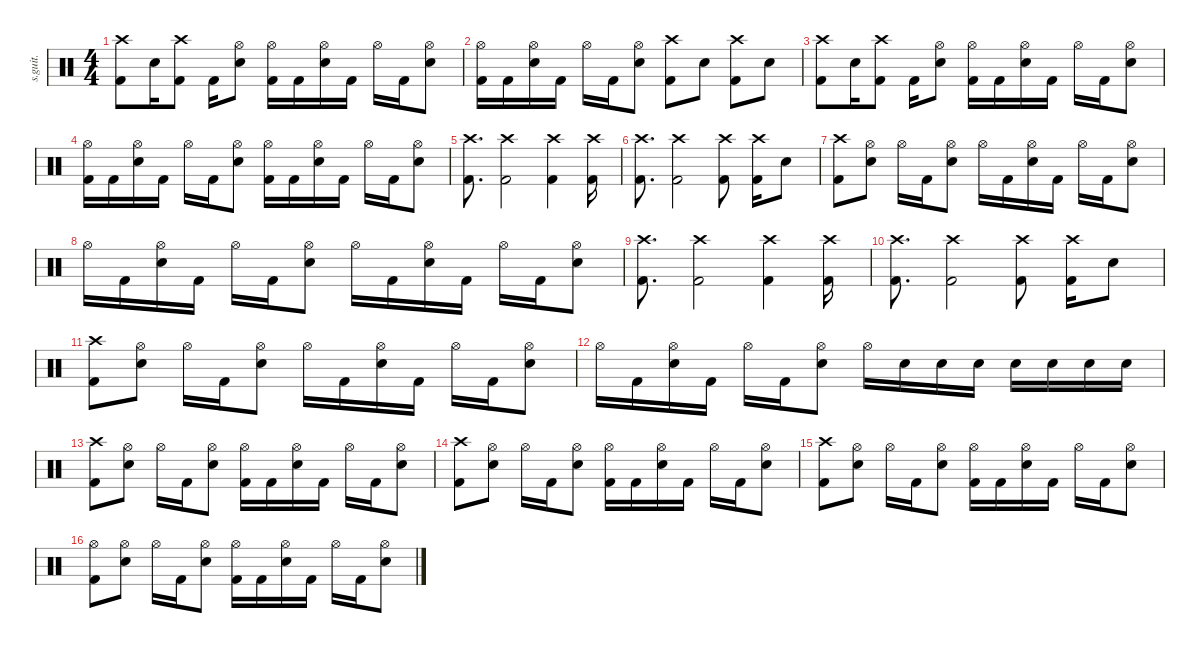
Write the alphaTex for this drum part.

\defaultSystemsLayout 4
\hideDynamics
\bracketExtendMode nobrackets
\track ("" "s.guit.") {instrument percussion}
\staff {score}
\articulation defaults
\ts (4 4)
\tempo (150 hide)
\clef neutral
\ks c
("Crash high (hit)" "Kick (hit) 2").8{dy f} "Snare (hit) 2".16 ("Crash high (hit)" "Kick (hit) 2").8 "Kick (hit) 2".16 ("Hi-Hat (open)" "Snare (hit) 2").8 ("Hi-Hat (open)" "Kick (hit) 2").16 "Kick (hit) 2".16 ("Hi-Hat (open)" "Snare (hit) 2").16 "Kick (hit) 2".16 "Hi-Hat (open)".16 "Kick (hit) 2".16 ("Hi-Hat (open)" "Snare (hit) 2").8 |
("Hi-Hat (open)" "Kick (hit) 2").16 "Kick (hit) 2".16 ("Hi-Hat (open)" "Snare (hit) 2").16 "Kick (hit) 2".16 "Hi-Hat (open)".16 "Kick (hit) 2".16 ("Hi-Hat (open)" "Snare (hit) 2").8 ("Crash high (hit)" "Kick (hit) 2").8 "Snare (hit) 2".8 ("Crash high (hit)" "Kick (hit) 2").8 "Snare (hit) 2".8 |
("Crash high (hit)" "Kick (hit) 2").8 "Snare (hit) 2".16 ("Crash high (hit)" "Kick (hit) 2").8 "Kick (hit) 2".16 ("Hi-Hat (open)" "Snare (hit) 2").8 ("Hi-Hat (open)" "Kick (hit) 2").16 "Kick (hit) 2".16 ("Hi-Hat (open)" "Snare (hit) 2").16 "Kick (hit) 2".16 "Hi-Hat (open)".16 "Kick (hit) 2".16 ("Hi-Hat (open)" "Snare (hit) 2").8 |
("Hi-Hat (open)" "Kick (hit) 2").16 "Kick (hit) 2".16 ("Hi-Hat (open)" "Snare (hit) 2").16 "Kick (hit) 2".16 "Hi-Hat (open)".16 "Kick (hit) 2".16 ("Hi-Hat (open)" "Snare (hit) 2").8 ("Hi-Hat (open)" "Kick (hit) 2").16 "Kick (hit) 2".16 ("Hi-Hat (open)" "Snare (hit) 2").16 "Kick (hit) 2".16 "Hi-Hat (open)".16 "Kick (hit) 2".16 ("Hi-Hat (open)" "Snare (hit) 2").8 |
("Crash high (hit)" "Kick (hit) 2").8{d} ("Crash high (hit)" "Kick (hit) 2").2 ("Crash high (hit)" "Kick (hit) 2").4 ("Crash high (hit)" "Kick (hit) 2").16 |
("Crash high (hit)" "Kick (hit) 2").8{d} ("Crash high (hit)" "Kick (hit) 2").2 ("Crash high (hit)" "Kick (hit) 2").8 ("Crash high (hit)" "Kick (hit) 2").16 "Snare (hit) 2".8 |
("Crash high (hit)" "Kick (hit) 2").8 ("Hi-Hat (open)" "Snare (hit) 2").8 "Hi-Hat (open)".16 "Kick (hit) 2".16 ("Hi-Hat (open)" "Snare (hit) 2").8 "Hi-Hat (open)".16 "Kick (hit) 2".16 ("Hi-Hat (open)" "Snare (hit) 2").16 "Kick (hit) 2".16 "Hi-Hat (open)".16 "Kick (hit) 2".16 ("Hi-Hat (open)" "Snare (hit) 2").8 |
"Hi-Hat (open)".16 "Kick (hit) 2".16 ("Hi-Hat (open)" "Snare (hit) 2").16 "Kick (hit) 2".16 "Hi-Hat (open)".16 "Kick (hit) 2".16 ("Hi-Hat (open)" "Snare (hit) 2").8 "Hi-Hat (open)".16 "Kick (hit) 2".16 ("Hi-Hat (open)" "Snare (hit) 2").16 "Kick (hit) 2".16 "Hi-Hat (open)".16 "Kick (hit) 2".16 ("Hi-Hat (open)" "Snare (hit) 2").8 |
("Crash high (hit)" "Kick (hit) 2").8{d} ("Crash high (hit)" "Kick (hit) 2").2 ("Crash high (hit)" "Kick (hit) 2").4 ("Crash high (hit)" "Kick (hit) 2").16 |
("Crash high (hit)" "Kick (hit) 2").8{d} ("Crash high (hit)" "Kick (hit) 2").2 ("Crash high (hit)" "Kick (hit) 2").8 ("Crash high (hit)" "Kick (hit) 2").16 "Snare (hit) 2".8 |
("Crash high (hit)" "Kick (hit) 2").8 ("Hi-Hat (open)" "Snare (hit) 2").8 "Hi-Hat (open)".16 "Kick (hit) 2".16 ("Hi-Hat (open)" "Snare (hit) 2").8 "Hi-Hat (open)".16 "Kick (hit) 2".16 ("Hi-Hat (open)" "Snare (hit) 2").16 "Kick (hit) 2".16 "Hi-Hat (open)".16 "Kick (hit) 2".16 ("Hi-Hat (open)" "Snare (hit) 2").8 |
"Hi-Hat (open)".16 "Kick (hit) 2".16 ("Hi-Hat (open)" "Snare (hit) 2").16 "Kick (hit) 2".16 "Hi-Hat (open)".16 "Kick (hit) 2".16 ("Hi-Hat (open)" "Snare (hit) 2").8 "Hi-Hat (open)".16 "Snare (hit) 2".16 "Snare (hit) 2".16 "Snare (hit) 2".16 "Snare (hit) 2".16 "Snare (hit) 2".16 "Snare (hit) 2".16 "Snare (hit) 2".16 |
("Crash high (hit)" "Kick (hit) 2").8 ("Hi-Hat (open)" "Snare (hit) 2").8 "Hi-Hat (open)".16 "Kick (hit) 2".16 ("Hi-Hat (open)" "Snare (hit) 2").8 ("Hi-Hat (open)" "Kick (hit) 2").16 "Kick (hit) 2".16 ("Hi-Hat (open)" "Snare (hit) 2").16 "Kick (hit) 2".16 "Hi-Hat (open)".16 "Kick (hit) 2".16 ("Hi-Hat (open)" "Snare (hit) 2").8 |
("Crash high (hit)" "Kick (hit) 2").8 ("Hi-Hat (open)" "Snare (hit) 2").8 "Hi-Hat (open)".16 "Kick (hit) 2".16 ("Hi-Hat (open)" "Snare (hit) 2").8 ("Hi-Hat (open)" "Kick (hit) 2").16 "Kick (hit) 2".16 ("Hi-Hat (open)" "Snare (hit) 2").16 "Kick (hit) 2".16 "Hi-Hat (open)".16 "Kick (hit) 2".16 ("Hi-Hat (open)" "Snare (hit) 2").8 |
("Crash high (hit)" "Kick (hit) 2").8 ("Hi-Hat (open)" "Snare (hit) 2").8 "Hi-Hat (open)".16 "Kick (hit) 2".16 ("Hi-Hat (open)" "Snare (hit) 2").8 ("Hi-Hat (open)" "Kick (hit) 2").16 "Kick (hit) 2".16 ("Hi-Hat (open)" "Snare (hit) 2").16 "Kick (hit) 2".16 "Hi-Hat (open)".16 "Kick (hit) 2".16 ("Hi-Hat (open)" "Snare (hit) 2").8 |
("Hi-Hat (open)" "Kick (hit) 2").8 ("Hi-Hat (open)" "Snare (hit) 2").8 "Hi-Hat (open)".16 "Kick (hit) 2".16 ("Hi-Hat (open)" "Snare (hit) 2").8 ("Hi-Hat (open)" "Kick (hit) 2").16 "Kick (hit) 2".16 ("Hi-Hat (open)" "Snare (hit) 2").16 "Kick (hit) 2".16 "Hi-Hat (open)".16 "Kick (hit) 2".16 ("Hi-Hat (open)" "Snare (hit) 2").8
